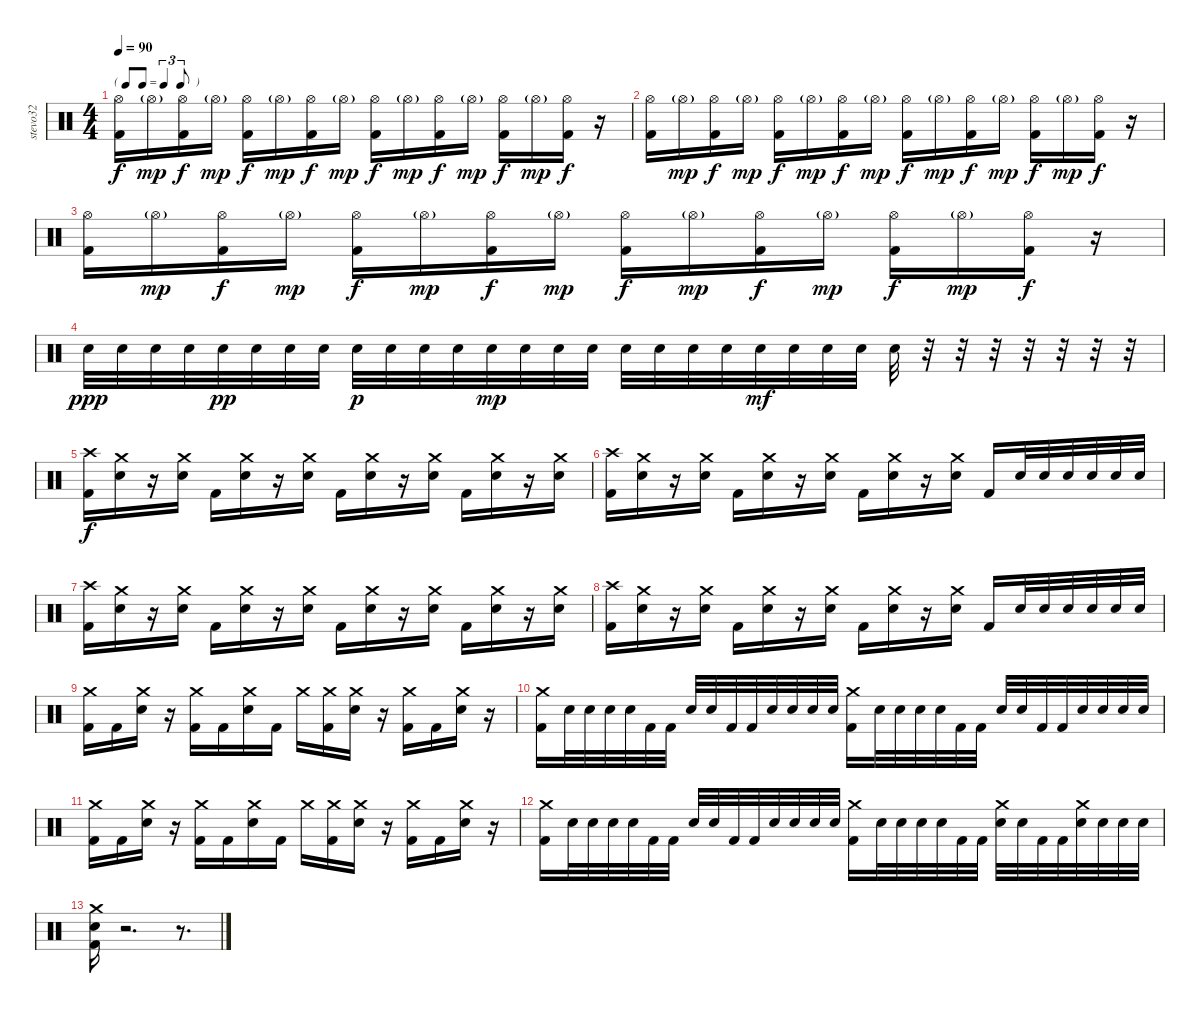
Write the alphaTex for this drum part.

\track ("stevo32" "stevo32") {instrument percussion}
\staff {score}
\articulation defaults
\ts (4 4)
\tf triplet8th
\tempo 90
\clef neutral
\ks c
("Hi-Hat (open)" "Kick (hit) 2").16{dy f} "Hi-Hat (open)"{g}.16{dy mp} ("Hi-Hat (open)" "Kick (hit) 2").16{dy f} "Hi-Hat (open)"{g}.16{dy mp} ("Hi-Hat (open)" "Kick (hit) 2").16{dy f} "Hi-Hat (open)"{g}.16{dy mp} ("Hi-Hat (open)" "Kick (hit) 2").16{dy f} "Hi-Hat (open)"{g}.16{dy mp} ("Hi-Hat (open)" "Kick (hit) 2").16{dy f} "Hi-Hat (open)"{g}.16{dy mp} ("Hi-Hat (open)" "Kick (hit) 2").16{dy f} "Hi-Hat (open)"{g}.16{dy mp} ("Hi-Hat (open)" "Kick (hit) 2").16{dy f} "Hi-Hat (open)"{g}.16{dy mp} ("Hi-Hat (open)" "Kick (hit) 2").16{dy f} r.16 |
("Hi-Hat (open)" "Kick (hit) 2").16 "Hi-Hat (open)"{g}.16{dy mp} ("Hi-Hat (open)" "Kick (hit) 2").16{dy f} "Hi-Hat (open)"{g}.16{dy mp} ("Hi-Hat (open)" "Kick (hit) 2").16{dy f} "Hi-Hat (open)"{g}.16{dy mp} ("Hi-Hat (open)" "Kick (hit) 2").16{dy f} "Hi-Hat (open)"{g}.16{dy mp} ("Hi-Hat (open)" "Kick (hit) 2").16{dy f} "Hi-Hat (open)"{g}.16{dy mp} ("Hi-Hat (open)" "Kick (hit) 2").16{dy f} "Hi-Hat (open)"{g}.16{dy mp} ("Hi-Hat (open)" "Kick (hit) 2").16{dy f} "Hi-Hat (open)"{g}.16{dy mp} ("Hi-Hat (open)" "Kick (hit) 2").16{dy f} r.16 |
("Hi-Hat (open)" "Kick (hit) 2").16 "Hi-Hat (open)"{g}.16{dy mp} ("Hi-Hat (open)" "Kick (hit) 2").16{dy f} "Hi-Hat (open)"{g}.16{dy mp} ("Hi-Hat (open)" "Kick (hit) 2").16{dy f} "Hi-Hat (open)"{g}.16{dy mp} ("Hi-Hat (open)" "Kick (hit) 2").16{dy f} "Hi-Hat (open)"{g}.16{dy mp} ("Hi-Hat (open)" "Kick (hit) 2").16{dy f} "Hi-Hat (open)"{g}.16{dy mp} ("Hi-Hat (open)" "Kick (hit) 2").16{dy f} "Hi-Hat (open)"{g}.16{dy mp} ("Hi-Hat (open)" "Kick (hit) 2").16{dy f} "Hi-Hat (open)"{g}.16{dy mp} ("Hi-Hat (open)" "Kick (hit) 2").16{dy f} r.16 |
"Electric Snare (hit)".32{dy ppp} "Electric Snare (hit)".32 "Electric Snare (hit)".32 "Electric Snare (hit)".32 "Electric Snare (hit)".32{dy pp} "Electric Snare (hit)".32 "Electric Snare (hit)".32 "Electric Snare (hit)".32 "Electric Snare (hit)".32{dy p} "Electric Snare (hit)".32 "Electric Snare (hit)".32 "Electric Snare (hit)".32 "Electric Snare (hit)".32{dy mp} "Electric Snare (hit)".32 "Electric Snare (hit)".32 "Electric Snare (hit)".32 "Electric Snare (hit)".32 "Electric Snare (hit)".32 "Electric Snare (hit)".32 "Electric Snare (hit)".32 "Electric Snare (hit)".32{dy mf} "Electric Snare (hit)".32 "Electric Snare (hit)".32 "Electric Snare (hit)".32 "Electric Snare (hit)".32 r.32 r.32 r.32 r.32 r.32 r.32 r.32 |
("Crash high (hit)" "Kick (hit) 2").16{dy f} ("Crash medium (hit)" "Electric Snare (hit)").16 r.16 ("Crash medium (hit)" "Electric Snare (hit)").16 "Kick (hit) 2".16 ("Crash medium (hit)" "Electric Snare (hit)").16 r.16 ("Crash medium (hit)" "Electric Snare (hit)").16 "Kick (hit) 2".16 ("Crash medium (hit)" "Electric Snare (hit)").16 r.16 ("Crash medium (hit)" "Electric Snare (hit)").16 "Kick (hit) 2".16 ("Crash medium (hit)" "Electric Snare (hit)").16 r.16 ("Crash medium (hit)" "Electric Snare (hit)").16 |
("Crash high (hit)" "Kick (hit) 2").16 ("Crash medium (hit)" "Electric Snare (hit)").16 r.16 ("Crash medium (hit)" "Electric Snare (hit)").16 "Kick (hit) 2".16 ("Crash medium (hit)" "Electric Snare (hit)").16 r.16 ("Crash medium (hit)" "Electric Snare (hit)").16 "Kick (hit) 2".16 ("Crash medium (hit)" "Electric Snare (hit)").16 r.16 ("Crash medium (hit)" "Electric Snare (hit)").16 "Kick (hit) 2".16 "Electric Snare (hit)".32 "Electric Snare (hit)".32 "Electric Snare (hit)".32 "Electric Snare (hit)".32 "Electric Snare (hit)".32 "Electric Snare (hit)".32 |
("Crash high (hit)" "Kick (hit) 2").16 ("Crash medium (hit)" "Electric Snare (hit)").16 r.16 ("Crash medium (hit)" "Electric Snare (hit)").16 "Kick (hit) 2".16 ("Crash medium (hit)" "Electric Snare (hit)").16 r.16 ("Crash medium (hit)" "Electric Snare (hit)").16 "Kick (hit) 2".16 ("Crash medium (hit)" "Electric Snare (hit)").16 r.16 ("Crash medium (hit)" "Electric Snare (hit)").16 "Kick (hit) 2".16 ("Crash medium (hit)" "Electric Snare (hit)").16 r.16 ("Crash medium (hit)" "Electric Snare (hit)").16 |
("Crash high (hit)" "Kick (hit) 2").16 ("Crash medium (hit)" "Electric Snare (hit)").16 r.16 ("Crash medium (hit)" "Electric Snare (hit)").16 "Kick (hit) 2".16 ("Crash medium (hit)" "Electric Snare (hit)").16 r.16 ("Crash medium (hit)" "Electric Snare (hit)").16 "Kick (hit) 2".16 ("Crash medium (hit)" "Electric Snare (hit)").16 r.16 ("Crash medium (hit)" "Electric Snare (hit)").16 "Kick (hit) 2".16 "Electric Snare (hit)".32 "Electric Snare (hit)".32 "Electric Snare (hit)".32 "Electric Snare (hit)".32 "Electric Snare (hit)".32 "Electric Snare (hit)".32 |
("Crash medium (hit)" "Kick (hit) 2").16 "Kick (hit) 2".16 ("Crash medium (hit)" "Electric Snare (hit)").16 r.16 ("Crash medium (hit)" "Kick (hit) 2").16 "Kick (hit) 2".16 ("Crash medium (hit)" "Electric Snare (hit)").16 "Kick (hit) 2".16 "Crash medium (hit)".16 ("Crash medium (hit)" "Kick (hit) 2").16 ("Crash medium (hit)" "Electric Snare (hit)").16 r.16 ("Crash medium (hit)" "Kick (hit) 2").16 "Kick (hit) 2".16 ("Crash medium (hit)" "Electric Snare (hit)").16 r.16 |
("Crash medium (hit)" "Kick (hit) 2").16 "Electric Snare (hit)".32 "Electric Snare (hit)".32 "Electric Snare (hit)".32 "Electric Snare (hit)".32 "Kick (hit) 2".32 "Kick (hit) 2".32 "Electric Snare (hit)".32 "Electric Snare (hit)".32 "Kick (hit) 2".32 "Kick (hit) 2".32 "Electric Snare (hit)".32 "Electric Snare (hit)".32 "Electric Snare (hit)".32 "Electric Snare (hit)".32 ("Crash medium (hit)" "Kick (hit) 2").16 "Electric Snare (hit)".32 "Electric Snare (hit)".32 "Snare (hit)".32 "Snare (hit)".32 "Kick (hit) 2".32 "Kick (hit) 2".32 "Electric Snare (hit)".32 "Electric Snare (hit)".32 "Kick (hit) 2".32 "Kick (hit) 2".32 "Electric Snare (hit)".32 "Electric Snare (hit)".32 "Electric Snare (hit)".32 "Electric Snare (hit)".32 |
("Crash medium (hit)" "Kick (hit) 2").16 "Kick (hit) 2".16 ("Crash medium (hit)" "Electric Snare (hit)").16 r.16 ("Crash medium (hit)" "Kick (hit) 2").16 "Kick (hit) 2".16 ("Crash medium (hit)" "Electric Snare (hit)").16 "Kick (hit) 2".16 "Crash medium (hit)".16 ("Crash medium (hit)" "Kick (hit) 2").16 ("Crash medium (hit)" "Electric Snare (hit)").16 r.16 ("Crash medium (hit)" "Kick (hit) 2").16 "Kick (hit) 2".16 ("Crash medium (hit)" "Electric Snare (hit)").16 r.16 |
("Crash medium (hit)" "Kick (hit) 2").16 "Electric Snare (hit)".32 "Electric Snare (hit)".32 "Electric Snare (hit)".32 "Electric Snare (hit)".32 "Kick (hit) 2".32 "Kick (hit) 2".32 "Electric Snare (hit)".32 "Electric Snare (hit)".32 "Kick (hit) 2".32 "Kick (hit) 2".32 "Electric Snare (hit)".32 "Electric Snare (hit)".32 "Electric Snare (hit)".32 "Electric Snare (hit)".32 ("Crash medium (hit)" "Kick (hit) 2").16 "Electric Snare (hit)".32 "Electric Snare (hit)".32 "Snare (hit)".32 "Snare (hit)".32 "Kick (hit) 2".32 "Kick (hit) 2".32 ("Crash medium (hit)" "Electric Snare (hit)").32 "Electric Snare (hit)".32 "Kick (hit) 2".32 "Kick (hit) 2".32 ("Crash medium (hit)" "Electric Snare (hit)").32 "Electric Snare (hit)".32 "Electric Snare (hit)".32 "Electric Snare (hit)".32 |
("Electric Snare (hit)" "Crash medium (hit)" "Kick (hit) 2").16 r.2{d} r.8{d}
